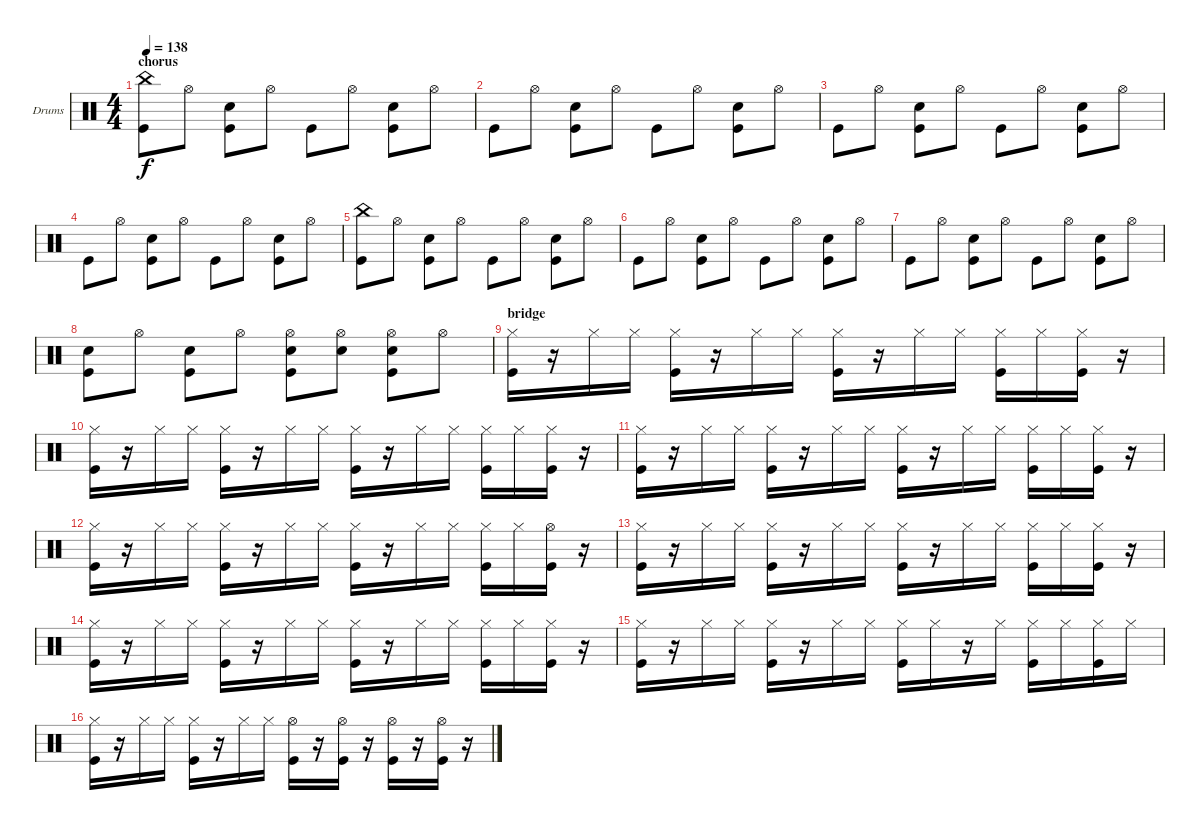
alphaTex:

\bracketExtendMode groupsimilarinstruments
\firstSystemTrackNameOrientation horizontal
\otherSystemsTrackNameOrientation horizontal
\track ("Drumkit" "Drums") {instrument percussion}
\staff {score}
\articulation defaults
\ts (4 4)
\section ("" "chorus")
\tempo 138
\clef neutral
\ks c
("China (hit)" "Kick (hit)").8{dy f} "Hi-Hat (open)".8 ("Snare (hit) 2" "Kick (hit)").8 "Hi-Hat (open)".8 "Kick (hit)".8 "Hi-Hat (open)".8 ("Snare (hit) 2" "Kick (hit)").8 "Hi-Hat (open)".8 |
"Kick (hit)".8 "Hi-Hat (open)".8 ("Snare (hit) 2" "Kick (hit)").8 "Hi-Hat (open)".8 "Kick (hit)".8 "Hi-Hat (open)".8 ("Snare (hit) 2" "Kick (hit)").8 "Hi-Hat (open)".8 |
"Kick (hit)".8 "Hi-Hat (open)".8 ("Snare (hit) 2" "Kick (hit)").8 "Hi-Hat (open)".8 "Kick (hit)".8 "Hi-Hat (open)".8 ("Snare (hit) 2" "Kick (hit)").8 "Hi-Hat (open)".8 |
"Kick (hit)".8 "Hi-Hat (open)".8 ("Snare (hit) 2" "Kick (hit)").8 "Hi-Hat (open)".8 "Kick (hit)".8 "Hi-Hat (open)".8 ("Snare (hit) 2" "Kick (hit)").8 "Hi-Hat (open)".8 |
("China (hit)" "Kick (hit)").8 "Hi-Hat (open)".8 ("Snare (hit) 2" "Kick (hit)").8 "Hi-Hat (open)".8 "Kick (hit)".8 "Hi-Hat (open)".8 ("Snare (hit) 2" "Kick (hit)").8 "Hi-Hat (open)".8 |
"Kick (hit)".8 "Hi-Hat (open)".8 ("Snare (hit) 2" "Kick (hit)").8 "Hi-Hat (open)".8 "Kick (hit)".8 "Hi-Hat (open)".8 ("Snare (hit) 2" "Kick (hit)").8 "Hi-Hat (open)".8 |
"Kick (hit)".8 "Hi-Hat (open)".8 ("Snare (hit) 2" "Kick (hit)").8 "Hi-Hat (open)".8 "Kick (hit)".8 "Hi-Hat (open)".8 ("Snare (hit) 2" "Kick (hit)").8 "Hi-Hat (open)".8 |
("Snare (hit) 2" "Kick (hit)").8 "Hi-Hat (open)".8 ("Snare (hit) 2" "Kick (hit)").8 "Hi-Hat (open)".8 ("Hi-Hat (open)" "Snare (hit) 2" "Kick (hit)").8 ("Hi-Hat (open)" "Snare (hit) 2").8 ("Hi-Hat (open)" "Snare (hit) 2" "Kick (hit)").8 "Hi-Hat (open)".8 |
\section ("" "bridge")
("Hi-Hat (closed)" "Kick (hit)").16 r.16 "Hi-Hat (closed)".16 "Hi-Hat (closed)".16 ("Hi-Hat (closed)" "Kick (hit)").16 r.16 "Hi-Hat (closed)".16 "Hi-Hat (closed)".16 ("Hi-Hat (closed)" "Kick (hit)").16 r.16 "Hi-Hat (closed)".16 "Hi-Hat (closed)".16 ("Hi-Hat (closed)" "Kick (hit)").16 "Hi-Hat (closed)".16 ("Hi-Hat (closed)" "Kick (hit)").16 r.16 |
("Hi-Hat (closed)" "Kick (hit)").16 r.16 "Hi-Hat (closed)".16 "Hi-Hat (closed)".16 ("Hi-Hat (closed)" "Kick (hit)").16 r.16 "Hi-Hat (closed)".16 "Hi-Hat (closed)".16 ("Hi-Hat (closed)" "Kick (hit)").16 r.16 "Hi-Hat (closed)".16 "Hi-Hat (closed)".16 ("Hi-Hat (closed)" "Kick (hit)").16 "Hi-Hat (closed)".16 ("Hi-Hat (closed)" "Kick (hit)").16 r.16 |
("Hi-Hat (closed)" "Kick (hit)").16 r.16 "Hi-Hat (closed)".16 "Hi-Hat (closed)".16 ("Hi-Hat (closed)" "Kick (hit)").16 r.16 "Hi-Hat (closed)".16 "Hi-Hat (closed)".16 ("Hi-Hat (closed)" "Kick (hit)").16 r.16 "Hi-Hat (closed)".16 "Hi-Hat (closed)".16 ("Hi-Hat (closed)" "Kick (hit)").16 "Hi-Hat (closed)".16 ("Hi-Hat (closed)" "Kick (hit)").16 r.16 |
("Hi-Hat (closed)" "Kick (hit)").16 r.16 "Hi-Hat (closed)".16 "Hi-Hat (closed)".16 ("Hi-Hat (closed)" "Kick (hit)").16 r.16 "Hi-Hat (closed)".16 "Hi-Hat (closed)".16 ("Hi-Hat (closed)" "Kick (hit)").16 r.16 "Hi-Hat (closed)".16 "Hi-Hat (closed)".16 ("Hi-Hat (closed)" "Kick (hit)").16 "Hi-Hat (closed)".16 ("Hi-Hat (open)" "Kick (hit)").16 r.16 |
("Hi-Hat (closed)" "Kick (hit)").16 r.16 "Hi-Hat (closed)".16 "Hi-Hat (closed)".16 ("Hi-Hat (closed)" "Kick (hit)").16 r.16 "Hi-Hat (closed)".16 "Hi-Hat (closed)".16 ("Hi-Hat (closed)" "Kick (hit)").16 r.16 "Hi-Hat (closed)".16 "Hi-Hat (closed)".16 ("Hi-Hat (closed)" "Kick (hit)").16 "Hi-Hat (closed)".16 ("Hi-Hat (closed)" "Kick (hit)").16 r.16 |
("Hi-Hat (closed)" "Kick (hit)").16 r.16 "Hi-Hat (closed)".16 "Hi-Hat (closed)".16 ("Hi-Hat (closed)" "Kick (hit)").16 r.16 "Hi-Hat (closed)".16 "Hi-Hat (closed)".16 ("Hi-Hat (closed)" "Kick (hit)").16 r.16 "Hi-Hat (closed)".16 "Hi-Hat (closed)".16 ("Hi-Hat (closed)" "Kick (hit)").16 "Hi-Hat (closed)".16 ("Hi-Hat (closed)" "Kick (hit)").16 r.16 |
("Hi-Hat (closed)" "Kick (hit)").16 r.16 "Hi-Hat (closed)".16 "Hi-Hat (closed)".16 ("Hi-Hat (closed)" "Kick (hit)").16 r.16 "Hi-Hat (closed)".16 "Hi-Hat (closed)".16 ("Hi-Hat (closed)" "Kick (hit)").16 "Hi-Hat (closed)".16 r.16 "Hi-Hat (closed)".16 ("Hi-Hat (closed)" "Kick (hit)").16 "Hi-Hat (closed)".16 ("Hi-Hat (closed)" "Kick (hit)").16 "Hi-Hat (closed)".16 |
("Hi-Hat (closed)" "Kick (hit)").16 r.16 "Hi-Hat (closed)".16 "Hi-Hat (closed)".16 ("Hi-Hat (closed)" "Kick (hit)").16 r.16 "Hi-Hat (closed)".16 "Hi-Hat (closed)".16 ("Hi-Hat (open)" "Kick (hit)").16 r.16 ("Hi-Hat (open)" "Kick (hit)").16 r.16 ("Hi-Hat (open)" "Kick (hit)").16 r.16 ("Hi-Hat (open)" "Kick (hit)").16 r.16
